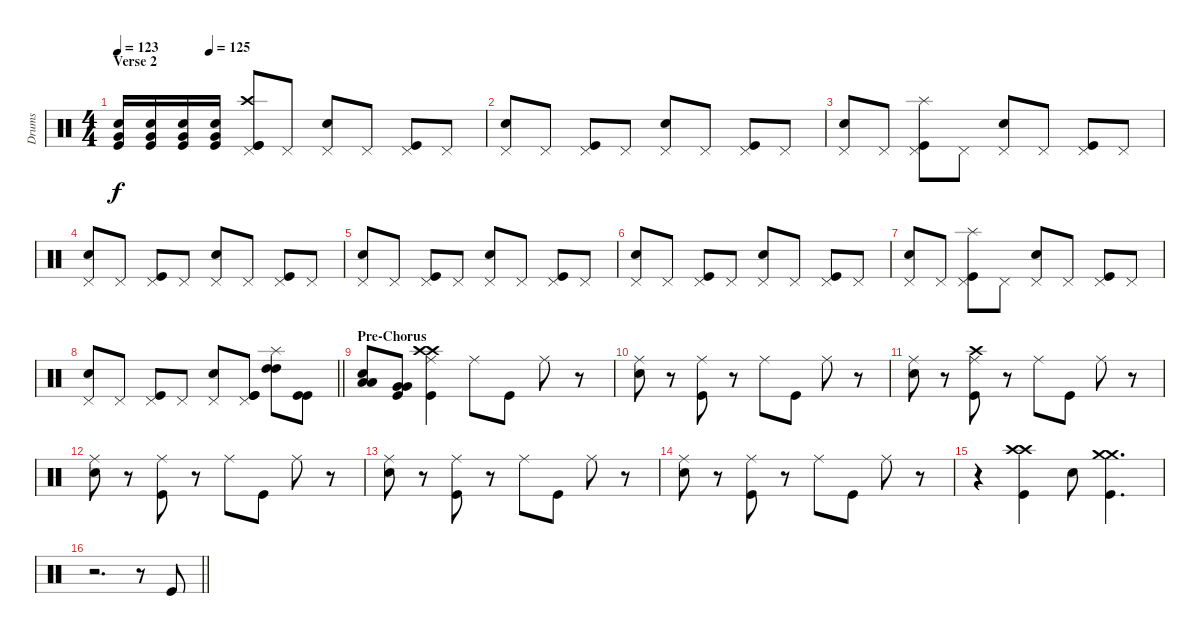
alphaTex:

\track ("Drums" "Drums") {instrument percussion}
\staff {score}
\articulation defaults
\ts (4 4)
\section ("" "Verse 2")
\tempo 123
\tempo (125 0.25)
\clef neutral
\ks c
("Kick (hit)" "Electric Snare (hit)" "Very Low Tom (hit)").16{dy f} ("Kick (hit)" "Electric Snare (hit)" "Very Low Tom (hit)").16 ("Kick (hit)" "Electric Snare (hit)" "Very Low Tom (hit)").16 ("Kick (hit)" "Electric Snare (hit)" "Very Low Tom (hit)").16 ("Crash high (hit)" "Pedal Hi-Hat (hit)" "Kick (hit)" "Kick (hit)").8 "Pedal Hi-Hat (hit)".8 ("Pedal Hi-Hat (hit)" "Snare (hit) 2").8 "Pedal Hi-Hat (hit)".8 ("Pedal Hi-Hat (hit)" "Kick (hit)").8 "Pedal Hi-Hat (hit)".8 |
("Pedal Hi-Hat (hit)" "Snare (hit) 2").8 "Pedal Hi-Hat (hit)".8 ("Pedal Hi-Hat (hit)" "Kick (hit)").8 "Pedal Hi-Hat (hit)".8 ("Pedal Hi-Hat (hit)" "Snare (hit) 2").8 "Pedal Hi-Hat (hit)".8 ("Pedal Hi-Hat (hit)" "Kick (hit)").8 "Pedal Hi-Hat (hit)".8 |
("Pedal Hi-Hat (hit)" "Snare (hit) 2").8 "Pedal Hi-Hat (hit)".8 ("Splash (hit)" "Pedal Hi-Hat (hit)" "Kick (hit)").8 "Pedal Hi-Hat (hit)".8 ("Pedal Hi-Hat (hit)" "Snare (hit) 2").8 "Pedal Hi-Hat (hit)".8 ("Pedal Hi-Hat (hit)" "Kick (hit)").8 "Pedal Hi-Hat (hit)".8 |
("Pedal Hi-Hat (hit)" "Snare (hit) 2").8 "Pedal Hi-Hat (hit)".8 ("Pedal Hi-Hat (hit)" "Kick (hit)").8 "Pedal Hi-Hat (hit)".8 ("Pedal Hi-Hat (hit)" "Snare (hit) 2").8 "Pedal Hi-Hat (hit)".8 ("Pedal Hi-Hat (hit)" "Kick (hit)").8 "Pedal Hi-Hat (hit)".8 |
("Pedal Hi-Hat (hit)" "Snare (hit) 2").8 "Pedal Hi-Hat (hit)".8 ("Pedal Hi-Hat (hit)" "Kick (hit)").8 "Pedal Hi-Hat (hit)".8 ("Pedal Hi-Hat (hit)" "Snare (hit) 2").8 "Pedal Hi-Hat (hit)".8 ("Pedal Hi-Hat (hit)" "Kick (hit)").8 "Pedal Hi-Hat (hit)".8 |
("Pedal Hi-Hat (hit)" "Snare (hit) 2").8 "Pedal Hi-Hat (hit)".8 ("Pedal Hi-Hat (hit)" "Kick (hit)").8 "Pedal Hi-Hat (hit)".8 ("Pedal Hi-Hat (hit)" "Snare (hit) 2").8 "Pedal Hi-Hat (hit)".8 ("Pedal Hi-Hat (hit)" "Kick (hit)").8 "Pedal Hi-Hat (hit)".8 |
("Pedal Hi-Hat (hit)" "Snare (hit) 2").8 "Pedal Hi-Hat (hit)".8 ("Splash (hit)" "Pedal Hi-Hat (hit)" "Kick (hit)").8 "Pedal Hi-Hat (hit)".8 ("Pedal Hi-Hat (hit)" "Snare (hit) 2").8 "Pedal Hi-Hat (hit)".8 ("Pedal Hi-Hat (hit)" "Kick (hit)").8 "Pedal Hi-Hat (hit)".8 |
\barLineRight lightlight
("Pedal Hi-Hat (hit)" "Snare (hit) 2").8 "Pedal Hi-Hat (hit)".8 ("Pedal Hi-Hat (hit)" "Kick (hit)").8 "Pedal Hi-Hat (hit)".8 ("Pedal Hi-Hat (hit)" "Snare (hit) 2").8 ("Pedal Hi-Hat (hit)" "Kick (hit)" "Kick (hit)").8 ("High Tom (hit)" "High Tom (hit)" "Splash (hit)").8 ("Kick (hit)" "Kick (hit)").8 |
\section ("" "Pre-Chorus")
("Low Tom (hit)" "Low Tom (hit)" "Snare (hit) 2").8 ("Very Low Tom (hit)" "Very Low Tom (hit)" "Kick (hit)").8 ("Crash high (hit)" "Crash high (hit)" "Ride (middle)" "Kick (hit)").4 "Ride (middle)".8 "Kick (hit)".8 "Ride (middle)".8 r.8 |
("Ride (middle)" "Snare (hit) 2").8 r.8 ("Ride (middle)" "Kick (hit)").8 r.8 "Ride (middle)".8 "Kick (hit)".8 "Ride (middle)".8 r.8 |
("Ride (middle)" "Snare (hit) 2").8 r.8 ("Crash high (hit)" "Ride (middle)" "Kick (hit)").8 r.8 "Ride (middle)".8 "Kick (hit)".8 "Ride (middle)".8 r.8 |
("Ride (middle)" "Snare (hit) 2").8 r.8 ("Ride (middle)" "Kick (hit)").8 r.8 "Ride (middle)".8 "Kick (hit)".8 "Ride (middle)".8 r.8 |
("Ride (middle)" "Snare (hit) 2").8 r.8 ("Ride (middle)" "Kick (hit)").8 r.8 "Ride (middle)".8 "Kick (hit)".8 "Ride (middle)".8 r.8 |
("Ride (middle)" "Snare (hit) 2").8 r.8 ("Ride (middle)" "Kick (hit)").8 r.8 "Ride (middle)".8 "Kick (hit)".8 "Ride (middle)".8 r.8 |
r.4 ("Crash high (hit)" "Crash high (hit)" "Kick (hit)").4 "Snare (hit) 2".8 ("Crash medium (hit)" "Crash medium (hit)" "Kick (hit)").4{d} |
\barLineRight lightlight
r.2{d} r.8 "Kick (hit)".8
